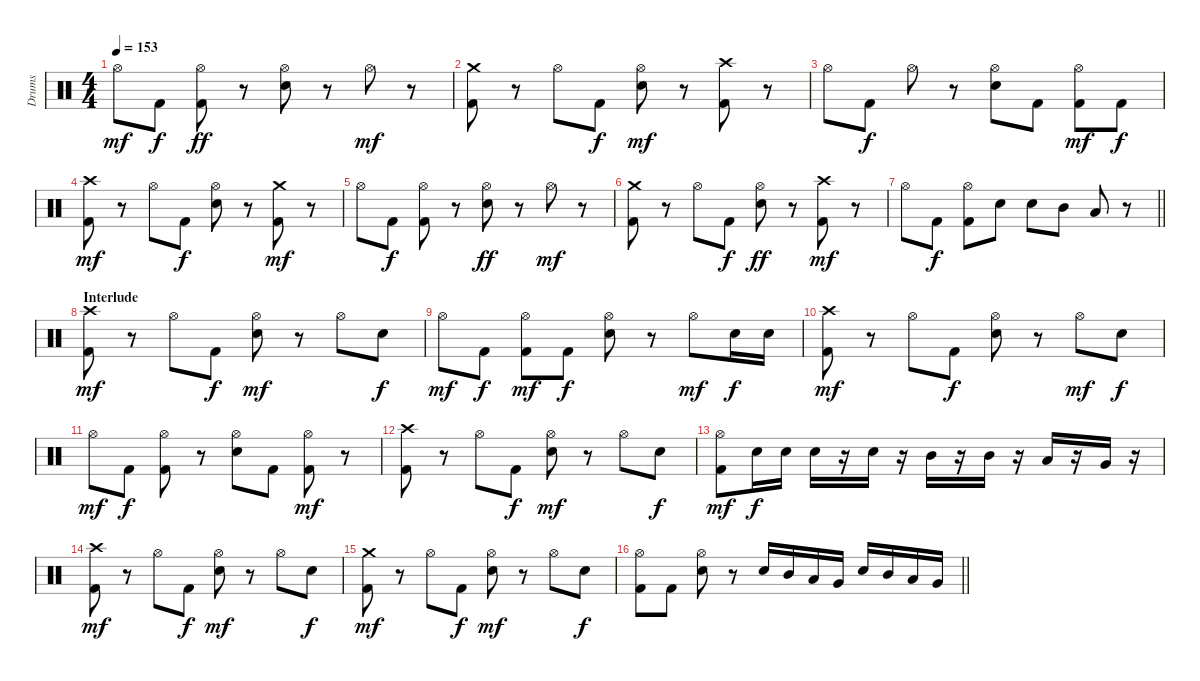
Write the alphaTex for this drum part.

\track ("Drums" "Drums") {instrument percussion}
\staff {score}
\articulation defaults
\ts (4 4)
\tempo 153
\clef neutral
\ks c "Hi-Hat (open)".8{dy mf} "Kick (hit) 2".8{dy f}
("Hi-Hat (open)" "Kick (hit) 2").8{dy ff} r.8 ("Hi-Hat (open)" "Electric Snare (hit)").8 r.8 "Hi-Hat (open)".8{dy mf} r.8 |
("Crash medium (hit)" "Kick (hit) 2").8 r.8 "Hi-Hat (open)".8 "Kick (hit) 2".8{dy f} ("Hi-Hat (open)" "Electric Snare (hit)").8{dy mf} r.8 ("Crash high (hit)" "Kick (hit) 2").8 r.8 |
"Hi-Hat (open)".8 "Kick (hit) 2".8{dy f} "Hi-Hat (open)".8 r.8 ("Hi-Hat (open)" "Electric Snare (hit)").8 "Kick (hit) 2".8 ("Hi-Hat (open)" "Kick (hit) 2").8{dy mf} "Kick (hit) 2".8{dy f} |
("Crash high (hit)" "Kick (hit) 2").8{dy mf} r.8 "Hi-Hat (open)".8 "Kick (hit) 2".8{dy f} ("Hi-Hat (open)" "Electric Snare (hit)").8 r.8 ("Crash medium (hit)" "Kick (hit) 2").8{dy mf} r.8 |
"Hi-Hat (open)".8 "Kick (hit) 2".8{dy f} ("Hi-Hat (open)" "Kick (hit) 2").8 r.8 ("Hi-Hat (open)" "Electric Snare (hit)").8{dy ff} r.8 "Hi-Hat (open)".8{dy mf} r.8 |
("Crash medium (hit)" "Kick (hit) 2").8 r.8 "Hi-Hat (open)".8 "Kick (hit) 2".8{dy f} ("Hi-Hat (open)" "Electric Snare (hit)").8{dy ff} r.8 ("Crash high (hit)" "Kick (hit) 2").8{dy mf} r.8 |
\barLineRight lightlight "Hi-Hat (open)".8 "Kick (hit) 2".8{dy f}
("Hi-Hat (open)" "Kick (hit) 2").8 "Electric Snare (hit)".8 "Electric Snare (hit)".8 "Mid Tom (hit)".8 "Low Tom (hit)".8 r.8 |
\section ("" "Interlude")
("Crash high (hit)" "Kick (hit) 2").8{dy mf} r.8 "Hi-Hat (open)".8 "Kick (hit) 2".8{dy f} ("Hi-Hat (open)" "Electric Snare (hit)").8{dy mf} r.8 "Hi-Hat (open)".8 "Electric Snare (hit)".8{dy f} |
"Hi-Hat (open)".8{dy mf} "Kick (hit) 2".8{dy f} ("Hi-Hat (open)" "Kick (hit) 2").8{dy mf} "Kick (hit) 2".8{dy f} ("Hi-Hat (open)" "Electric Snare (hit)").8 r.8 "Hi-Hat (open)".8{dy mf} "Electric Snare (hit)".16{dy f} "Electric Snare (hit)".16 |
("Crash high (hit)" "Kick (hit) 2").8{dy mf} r.8 "Hi-Hat (open)".8 "Kick (hit) 2".8{dy f} ("Hi-Hat (open)" "Electric Snare (hit)").8 r.8 "Hi-Hat (open)".8{dy mf} "Electric Snare (hit)".8{dy f} |
"Hi-Hat (open)".8{dy mf} "Kick (hit) 2".8{dy f} ("Hi-Hat (open)" "Kick (hit) 2").8 r.8 ("Hi-Hat (open)" "Electric Snare (hit)").8 "Kick (hit) 2".8 ("Hi-Hat (open)" "Kick (hit) 2").8{dy mf} r.8 |
("Crash high (hit)" "Kick (hit) 2").8 r.8 "Hi-Hat (open)".8 "Kick (hit) 2".8{dy f} ("Hi-Hat (open)" "Electric Snare (hit)").8{dy mf} r.8 "Hi-Hat (open)".8 "Electric Snare (hit)".8{dy f} |
("Hi-Hat (open)" "Kick (hit) 2").8{dy mf} "Electric Snare (hit)".16{dy f} "Electric Snare (hit)".16 "Electric Snare (hit)".16 r.16 "Electric Snare (hit)".16 r.16 "Mid Tom (hit)".16 r.16 "Mid Tom (hit)".16 r.16 "Low Tom (hit)".16 r.16 "Very Low Tom (hit)".16 r.16 |
("Crash high (hit)" "Kick (hit) 2").8{dy mf} r.8 "Hi-Hat (open)".8 "Kick (hit) 2".8{dy f} ("Hi-Hat (open)" "Electric Snare (hit)").8{dy mf} r.8 "Hi-Hat (open)".8 "Electric Snare (hit)".8{dy f} |
("Crash medium (hit)" "Kick (hit) 2").8{dy mf} r.8 "Hi-Hat (open)".8 "Kick (hit) 2".8{dy f} ("Hi-Hat (open)" "Electric Snare (hit)").8{dy mf} r.8 "Hi-Hat (open)".8 "Electric Snare (hit)".8{dy f} |
\barLineRight lightlight
("Hi-Hat (open)" "Kick (hit) 2").8 "Kick (hit) 2".8 ("Hi-Hat (open)" "Electric Snare (hit)").8 r.8 "Electric Snare (hit)".16 "Mid Tom (hit)".16 "Low Tom (hit)".16 "Very Low Tom (hit)".16 "Electric Snare (hit)".16 "Mid Tom (hit)".16 "Low Tom (hit)".16 "Very Low Tom (hit)".16
